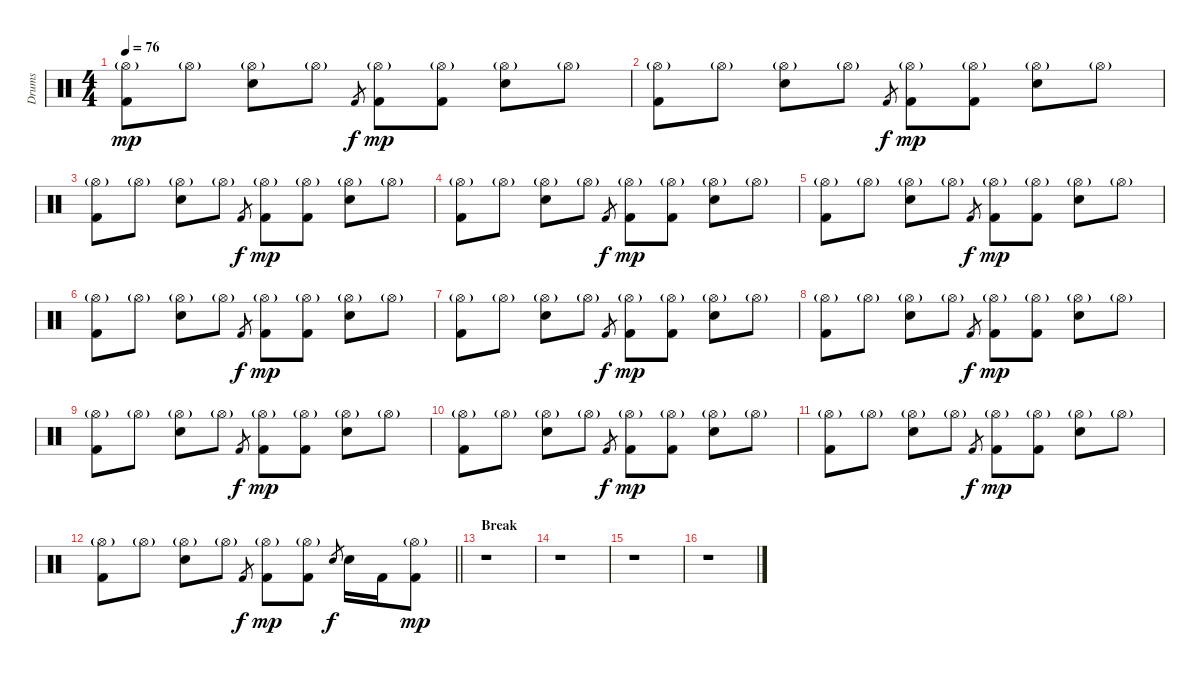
\track ("Drums" "Drums") {instrument percussion}
\staff {score}
\articulation defaults
\ts (4 4)
\tempo 76
\clef neutral
\ks c
("Kick (hit) 2" "Hi-Hat (open)"{g}).8{dy mp} "Hi-Hat (open)"{g}.8 ("Electric Snare (hit)" "Hi-Hat (open)"{g}).8 "Hi-Hat (open)"{g}.8 "Kick (hit) 2".8{gr dy f} ("Kick (hit) 2" "Hi-Hat (open)"{g}).8{dy mp} ("Kick (hit) 2" "Hi-Hat (open)"{g}).8 ("Electric Snare (hit)" "Hi-Hat (open)"{g}).8 "Hi-Hat (open)"{g}.8 |
("Kick (hit) 2" "Hi-Hat (open)"{g}).8 "Hi-Hat (open)"{g}.8 ("Electric Snare (hit)" "Hi-Hat (open)"{g}).8 "Hi-Hat (open)"{g}.8 "Kick (hit) 2".8{gr dy f} ("Kick (hit) 2" "Hi-Hat (open)"{g}).8{dy mp} ("Kick (hit) 2" "Hi-Hat (open)"{g}).8 ("Electric Snare (hit)" "Hi-Hat (open)"{g}).8 "Hi-Hat (open)"{g}.8 |
("Kick (hit) 2" "Hi-Hat (open)"{g}).8 "Hi-Hat (open)"{g}.8 ("Electric Snare (hit)" "Hi-Hat (open)"{g}).8 "Hi-Hat (open)"{g}.8 "Kick (hit) 2".8{gr dy f} ("Kick (hit) 2" "Hi-Hat (open)"{g}).8{dy mp} ("Kick (hit) 2" "Hi-Hat (open)"{g}).8 ("Electric Snare (hit)" "Hi-Hat (open)"{g}).8 "Hi-Hat (open)"{g}.8 |
("Kick (hit) 2" "Hi-Hat (open)"{g}).8 "Hi-Hat (open)"{g}.8 ("Electric Snare (hit)" "Hi-Hat (open)"{g}).8 "Hi-Hat (open)"{g}.8 "Kick (hit) 2".8{gr dy f} ("Kick (hit) 2" "Hi-Hat (open)"{g}).8{dy mp} ("Kick (hit) 2" "Hi-Hat (open)"{g}).8 ("Electric Snare (hit)" "Hi-Hat (open)"{g}).8 "Hi-Hat (open)"{g}.8 |
("Kick (hit) 2" "Hi-Hat (open)"{g}).8 "Hi-Hat (open)"{g}.8 ("Electric Snare (hit)" "Hi-Hat (open)"{g}).8 "Hi-Hat (open)"{g}.8 "Kick (hit) 2".8{gr dy f} ("Kick (hit) 2" "Hi-Hat (open)"{g}).8{dy mp} ("Kick (hit) 2" "Hi-Hat (open)"{g}).8 ("Electric Snare (hit)" "Hi-Hat (open)"{g}).8 "Hi-Hat (open)"{g}.8 |
("Kick (hit) 2" "Hi-Hat (open)"{g}).8 "Hi-Hat (open)"{g}.8 ("Electric Snare (hit)" "Hi-Hat (open)"{g}).8 "Hi-Hat (open)"{g}.8 "Kick (hit) 2".8{gr dy f} ("Kick (hit) 2" "Hi-Hat (open)"{g}).8{dy mp} ("Kick (hit) 2" "Hi-Hat (open)"{g}).8 ("Electric Snare (hit)" "Hi-Hat (open)"{g}).8 "Hi-Hat (open)"{g}.8 |
("Kick (hit) 2" "Hi-Hat (open)"{g}).8 "Hi-Hat (open)"{g}.8 ("Electric Snare (hit)" "Hi-Hat (open)"{g}).8 "Hi-Hat (open)"{g}.8 "Kick (hit) 2".8{gr dy f} ("Kick (hit) 2" "Hi-Hat (open)"{g}).8{dy mp} ("Kick (hit) 2" "Hi-Hat (open)"{g}).8 ("Electric Snare (hit)" "Hi-Hat (open)"{g}).8 "Hi-Hat (open)"{g}.8 |
("Kick (hit) 2" "Hi-Hat (open)"{g}).8 "Hi-Hat (open)"{g}.8 ("Electric Snare (hit)" "Hi-Hat (open)"{g}).8 "Hi-Hat (open)"{g}.8 "Kick (hit) 2".8{gr dy f} ("Kick (hit) 2" "Hi-Hat (open)"{g}).8{dy mp} ("Kick (hit) 2" "Hi-Hat (open)"{g}).8 ("Electric Snare (hit)" "Hi-Hat (open)"{g}).8 "Hi-Hat (open)"{g}.8 |
("Kick (hit) 2" "Hi-Hat (open)"{g}).8 "Hi-Hat (open)"{g}.8 ("Electric Snare (hit)" "Hi-Hat (open)"{g}).8 "Hi-Hat (open)"{g}.8 "Kick (hit) 2".8{gr dy f} ("Kick (hit) 2" "Hi-Hat (open)"{g}).8{dy mp} ("Kick (hit) 2" "Hi-Hat (open)"{g}).8 ("Electric Snare (hit)" "Hi-Hat (open)"{g}).8 "Hi-Hat (open)"{g}.8 |
("Kick (hit) 2" "Hi-Hat (open)"{g}).8 "Hi-Hat (open)"{g}.8 ("Electric Snare (hit)" "Hi-Hat (open)"{g}).8 "Hi-Hat (open)"{g}.8 "Kick (hit) 2".8{gr dy f} ("Kick (hit) 2" "Hi-Hat (open)"{g}).8{dy mp} ("Kick (hit) 2" "Hi-Hat (open)"{g}).8 ("Electric Snare (hit)" "Hi-Hat (open)"{g}).8 "Hi-Hat (open)"{g}.8 |
("Kick (hit) 2" "Hi-Hat (open)"{g}).8 "Hi-Hat (open)"{g}.8 ("Electric Snare (hit)" "Hi-Hat (open)"{g}).8 "Hi-Hat (open)"{g}.8 "Kick (hit) 2".8{gr dy f} ("Kick (hit) 2" "Hi-Hat (open)"{g}).8{dy mp} ("Kick (hit) 2" "Hi-Hat (open)"{g}).8 ("Electric Snare (hit)" "Hi-Hat (open)"{g}).8 "Hi-Hat (open)"{g}.8 |
\barLineRight lightlight
("Kick (hit) 2" "Hi-Hat (open)"{g}).8 "Hi-Hat (open)"{g}.8 ("Electric Snare (hit)" "Hi-Hat (open)"{g}).8 "Hi-Hat (open)"{g}.8 "Kick (hit) 2".8{gr dy f} ("Kick (hit) 2" "Hi-Hat (open)"{g}).8{dy mp} ("Kick (hit) 2" "Hi-Hat (open)"{g}).8 "Electric Snare (hit)".8{gr dy f} "Electric Snare (hit)".16 "Kick (hit) 2".16 ("Kick (hit) 2" "Hi-Hat (open)"{g}).8{dy mp} |
\section ("" "Break")
r.1 |
r.1 |
r.1 |
r.1
